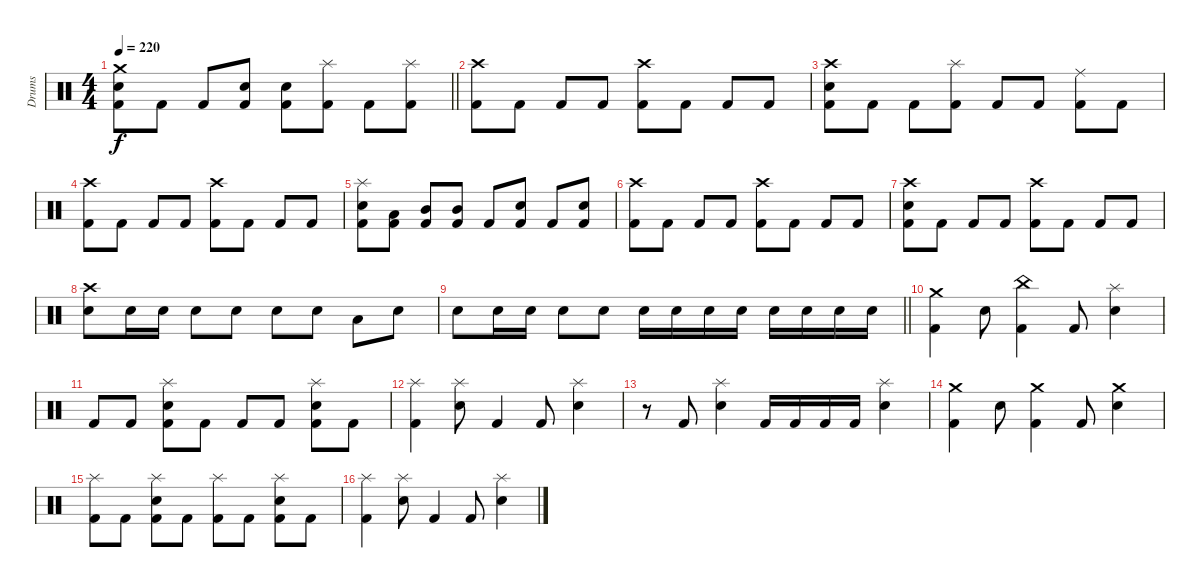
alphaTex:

\track ("Drums" "Drums") {instrument percussion}
\staff {score}
\articulation defaults
\ts (4 4)
\tempo 220
\clef neutral
\barLineRight lightlight
\ks c
("Crash medium (hit)" "Electric Snare (hit)" "Kick (hit) 2").8{dy f} "Kick (hit) 2".8 "Kick (hit) 2".8 ("Electric Snare (hit)" "Kick (hit) 2").8 ("Electric Snare (hit)" "Kick (hit) 2").8 ("Splash (hit)" "Kick (hit) 2").8 "Kick (hit) 2".8 ("Splash (hit)" "Kick (hit) 2").8 |
("Crash high (hit)" "Kick (hit) 2").8 "Kick (hit) 2".8 "Kick (hit) 2".8 "Kick (hit) 2".8 ("Crash high (hit)" "Kick (hit) 2").8 "Kick (hit) 2".8 "Kick (hit) 2".8 "Kick (hit) 2".8 |
("Crash high (hit)" "Electric Snare (hit)" "Kick (hit) 2").8 "Kick (hit) 2".8 "Kick (hit) 2".8 ("Splash (hit)" "Kick (hit) 2").8 "Kick (hit) 2".8 "Kick (hit) 2".8 ("Ride (middle)" "Kick (hit) 2").8 "Kick (hit) 2".8 |
("Crash high (hit)" "Kick (hit) 2").8 "Kick (hit) 2".8 "Kick (hit) 2".8 "Kick (hit) 2".8 ("Crash high (hit)" "Kick (hit) 2").8 "Kick (hit) 2".8 "Kick (hit) 2".8 "Kick (hit) 2".8 |
("Splash (hit)" "Electric Snare (hit)" "Kick (hit) 2").8 ("Low Tom (hit)" "Kick (hit) 2").8 ("Mid Tom (hit)" "Kick (hit) 2").8 ("Mid Tom (hit)" "Kick (hit) 2").8 "Kick (hit) 2".8 ("Electric Snare (hit)" "Kick (hit) 2").8 "Kick (hit) 2".8 ("Electric Snare (hit)" "Kick (hit) 2").8 |
("Crash high (hit)" "Kick (hit) 2").8 "Kick (hit) 2".8 "Kick (hit) 2".8 "Kick (hit) 2".8 ("Crash high (hit)" "Kick (hit) 2").8 "Kick (hit) 2".8 "Kick (hit) 2".8 "Kick (hit) 2".8 |
("Crash high (hit)" "Electric Snare (hit)" "Kick (hit) 2").8 "Kick (hit) 2".8 "Kick (hit) 2".8 "Kick (hit) 2".8 ("Crash high (hit)" "Kick (hit) 2").8 "Kick (hit) 2".8 "Kick (hit) 2".8 "Kick (hit) 2".8 |
("Crash high (hit)" "Electric Snare (hit)").8 "Electric Snare (hit)".16 "Electric Snare (hit)".16 "Electric Snare (hit)".8 "Electric Snare (hit)".8 "Electric Snare (hit)".8 "Electric Snare (hit)".8 "Low Tom (hit)".8 "Electric Snare (hit)".8 |
\barLineRight lightlight "Electric Snare (hit)".8 "Electric Snare (hit)".16 "Electric Snare (hit)".16 "Electric Snare (hit)".8 "Electric Snare (hit)".8 "Electric Snare (hit)".16 "Electric Snare (hit)".16 "Electric Snare (hit)".16 "Electric Snare (hit)".16 "Electric Snare (hit)".16 "Electric Snare (hit)".16 "Electric Snare (hit)".16 "Electric Snare (hit)".16
|
\section ("" "")
("Crash medium (hit)" "Kick (hit) 2").4 "Electric Snare (hit)".8 ("China (hit)" "Kick (hit) 2").4 "Kick (hit) 2".8 ("Splash (hit)" "Electric Snare (hit)").4 |
"Kick (hit) 2".8 "Kick (hit) 2".8 ("Splash (hit)" "Electric Snare (hit)" "Kick (hit) 2").8 "Kick (hit) 2".8 "Kick (hit) 2".8 "Kick (hit) 2".8 ("Splash (hit)" "Electric Snare (hit)" "Kick (hit) 2").8 "Kick (hit) 2".8 |
("Splash (hit)" "Kick (hit) 2").4 ("Splash (hit)" "Electric Snare (hit)").8 "Kick (hit) 2".4 "Kick (hit) 2".8 ("Splash (hit)" "Electric Snare (hit)").4 |
r.8 "Kick (hit) 2".8 ("Splash (hit)" "Electric Snare (hit)").4 "Kick (hit) 2".16 "Kick (hit) 2".16 "Kick (hit) 2".16 "Kick (hit) 2".16 ("Splash (hit)" "Electric Snare (hit)").4 |
("Crash medium (hit)" "Kick (hit) 2").4 "Electric Snare (hit)".8 ("Crash medium (hit)" "Kick (hit) 2").4 "Kick (hit) 2".8 ("Crash medium (hit)" "Electric Snare (hit)").4 |
("Splash (hit)" "Kick (hit) 2").8 "Kick (hit) 2".8 ("Splash (hit)" "Electric Snare (hit)" "Kick (hit) 2").8 "Kick (hit) 2".8 ("Splash (hit)" "Kick (hit) 2").8 "Kick (hit) 2".8 ("Splash (hit)" "Electric Snare (hit)" "Kick (hit) 2").8 "Kick (hit) 2".8 |
("Splash (hit)" "Kick (hit) 2").4 ("Splash (hit)" "Electric Snare (hit)").8 "Kick (hit) 2".4 "Kick (hit) 2".8 ("Splash (hit)" "Electric Snare (hit)").4
